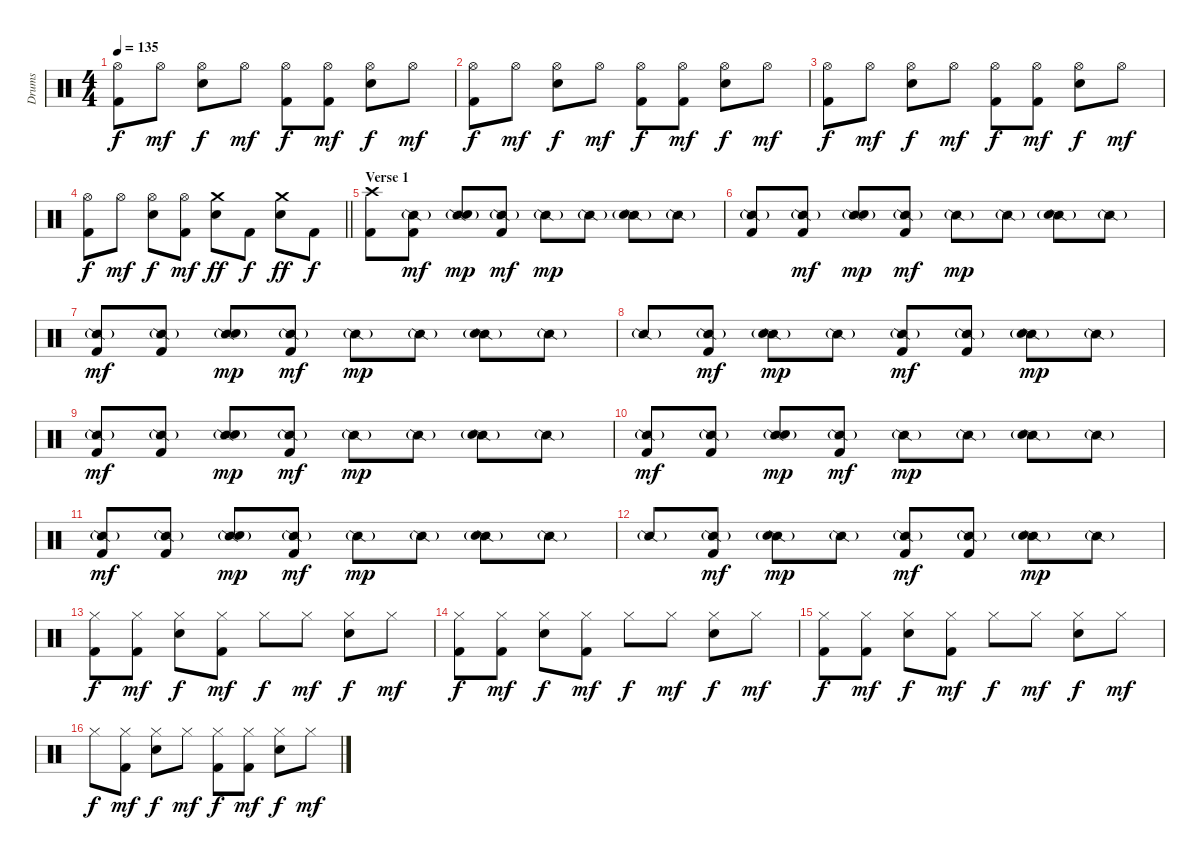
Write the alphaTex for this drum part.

\track ("Drums" "Drums") {instrument percussion}
\staff {score}
\articulation defaults
\ts (4 4)
\tempo 135
\clef neutral
\ks c
("Hi-Hat (open)" "Kick (hit) 2").8{dy f} "Hi-Hat (open)".8{dy mf} ("Hi-Hat (open)" "Electric Snare (hit)").8{dy f} "Hi-Hat (open)".8{dy mf} ("Hi-Hat (open)" "Kick (hit) 2").8{dy f} ("Hi-Hat (open)" "Kick (hit) 2").8{dy mf} ("Hi-Hat (open)" "Electric Snare (hit)").8{dy f} "Hi-Hat (open)".8{dy mf} |
("Hi-Hat (open)" "Kick (hit) 2").8{dy f} "Hi-Hat (open)".8{dy mf} ("Hi-Hat (open)" "Electric Snare (hit)").8{dy f} "Hi-Hat (open)".8{dy mf} ("Hi-Hat (open)" "Kick (hit) 2").8{dy f} ("Hi-Hat (open)" "Kick (hit) 2").8{dy mf} ("Hi-Hat (open)" "Electric Snare (hit)").8{dy f} "Hi-Hat (open)".8{dy mf} |
("Hi-Hat (open)" "Kick (hit) 2").8{dy f} "Hi-Hat (open)".8{dy mf} ("Hi-Hat (open)" "Electric Snare (hit)").8{dy f} "Hi-Hat (open)".8{dy mf} ("Hi-Hat (open)" "Kick (hit) 2").8{dy f} ("Hi-Hat (open)" "Kick (hit) 2").8{dy mf} ("Hi-Hat (open)" "Electric Snare (hit)").8{dy f} "Hi-Hat (open)".8{dy mf} |
\barLineRight lightlight
("Hi-Hat (open)" "Kick (hit) 2").8{dy f} "Hi-Hat (open)".8{dy mf} ("Hi-Hat (open)" "Electric Snare (hit)").8{dy f} ("Hi-Hat (open)" "Kick (hit) 2").8{dy mf} ("Crash medium (hit)" "Electric Snare (hit)").8{dy ff} "Kick (hit) 2".8{dy f} ("Crash medium (hit)" "Electric Snare (hit)").8{dy ff} "Kick (hit) 2".8{dy f} |
\section ("" "Verse 1")
("Crash high (hit)" "Kick (hit) 2").8 ("Snare (side stick) 2"{g} "Kick (hit) 2").8{dy mf} ("Snare (side stick) 2"{g} "Snare (hit) 2").8{dy mp} ("Snare (side stick) 2"{g} "Kick (hit) 2").8{dy mf} "Snare (side stick) 2"{g}.8{dy mp} "Snare (side stick) 2"{g}.8 ("Snare (side stick) 2"{g} "Snare (hit) 2").8 "Snare (side stick) 2"{g}.8 |
("Snare (side stick) 2"{g} "Kick (hit) 2").8 ("Snare (side stick) 2"{g} "Kick (hit) 2").8{dy mf} ("Snare (side stick) 2"{g} "Snare (hit) 2").8{dy mp} ("Snare (side stick) 2"{g} "Kick (hit) 2").8{dy mf} "Snare (side stick) 2"{g}.8{dy mp} "Snare (side stick) 2"{g}.8 ("Snare (side stick) 2"{g} "Snare (hit) 2").8 "Snare (side stick) 2"{g}.8 |
("Snare (side stick) 2"{g} "Kick (hit) 2").8{dy mf} ("Snare (side stick) 2"{g} "Kick (hit) 2").8 ("Snare (side stick) 2"{g} "Snare (hit) 2").8{dy mp} ("Snare (side stick) 2"{g} "Kick (hit) 2").8{dy mf} "Snare (side stick) 2"{g}.8{dy mp} "Snare (side stick) 2"{g}.8 ("Snare (side stick) 2"{g} "Snare (hit) 2").8 "Snare (side stick) 2"{g}.8 |
"Snare (side stick) 2"{g}.8 ("Snare (side stick) 2"{g} "Kick (hit) 2").8{dy mf} ("Snare (side stick) 2"{g} "Snare (hit) 2").8{dy mp} "Snare (side stick) 2"{g}.8 ("Snare (side stick) 2"{g} "Kick (hit) 2").8{dy mf} ("Snare (side stick) 2"{g} "Kick (hit) 2").8 ("Snare (side stick) 2"{g} "Snare (hit) 2").8{dy mp} "Snare (side stick) 2"{g}.8 |
("Snare (side stick) 2"{g} "Kick (hit) 2").8{dy mf} ("Snare (side stick) 2"{g} "Kick (hit) 2").8 ("Snare (side stick) 2"{g} "Snare (hit) 2").8{dy mp} ("Snare (side stick) 2"{g} "Kick (hit) 2").8{dy mf} "Snare (side stick) 2"{g}.8{dy mp} "Snare (side stick) 2"{g}.8 ("Snare (side stick) 2"{g} "Snare (hit) 2").8 "Snare (side stick) 2"{g}.8 |
("Snare (side stick) 2"{g} "Kick (hit) 2").8{dy mf} ("Snare (side stick) 2"{g} "Kick (hit) 2").8 ("Snare (side stick) 2"{g} "Snare (hit) 2").8{dy mp} ("Snare (side stick) 2"{g} "Kick (hit) 2").8{dy mf} "Snare (side stick) 2"{g}.8{dy mp} "Snare (side stick) 2"{g}.8 ("Snare (side stick) 2"{g} "Snare (hit) 2").8 "Snare (side stick) 2"{g}.8 |
("Snare (side stick) 2"{g} "Kick (hit) 2").8{dy mf} ("Snare (side stick) 2"{g} "Kick (hit) 2").8 ("Snare (side stick) 2"{g} "Snare (hit) 2").8{dy mp} ("Snare (side stick) 2"{g} "Kick (hit) 2").8{dy mf} "Snare (side stick) 2"{g}.8{dy mp} "Snare (side stick) 2"{g}.8 ("Snare (side stick) 2"{g} "Snare (hit) 2").8 "Snare (side stick) 2"{g}.8 |
"Snare (side stick) 2"{g}.8 ("Snare (side stick) 2"{g} "Kick (hit) 2").8{dy mf} ("Snare (side stick) 2"{g} "Snare (hit) 2").8{dy mp} "Snare (side stick) 2"{g}.8 ("Snare (side stick) 2"{g} "Kick (hit) 2").8{dy mf} ("Snare (side stick) 2"{g} "Kick (hit) 2").8 ("Snare (side stick) 2"{g} "Snare (hit) 2").8{dy mp} "Snare (side stick) 2"{g}.8 |
("Hi-Hat (closed)" "Kick (hit) 2").8{dy f} ("Hi-Hat (closed)" "Kick (hit) 2").8{dy mf} ("Hi-Hat (closed)" "Electric Snare (hit)").8{dy f} ("Hi-Hat (closed)" "Kick (hit) 2").8{dy mf} "Hi-Hat (closed)".8{dy f} "Hi-Hat (closed)".8{dy mf} ("Hi-Hat (closed)" "Electric Snare (hit)").8{dy f} "Hi-Hat (closed)".8{dy mf} |
("Hi-Hat (closed)" "Kick (hit) 2").8{dy f} ("Hi-Hat (closed)" "Kick (hit) 2").8{dy mf} ("Hi-Hat (closed)" "Electric Snare (hit)").8{dy f} ("Hi-Hat (closed)" "Kick (hit) 2").8{dy mf} "Hi-Hat (closed)".8{dy f} "Hi-Hat (closed)".8{dy mf} ("Hi-Hat (closed)" "Electric Snare (hit)").8{dy f} "Hi-Hat (closed)".8{dy mf} |
("Hi-Hat (closed)" "Kick (hit) 2").8{dy f} ("Hi-Hat (closed)" "Kick (hit) 2").8{dy mf} ("Hi-Hat (closed)" "Electric Snare (hit)").8{dy f} ("Hi-Hat (closed)" "Kick (hit) 2").8{dy mf} "Hi-Hat (closed)".8{dy f} "Hi-Hat (closed)".8{dy mf} ("Hi-Hat (closed)" "Electric Snare (hit)").8{dy f} "Hi-Hat (closed)".8{dy mf} |
"Hi-Hat (closed)".8{dy f} ("Hi-Hat (closed)" "Kick (hit) 2").8{dy mf} ("Hi-Hat (closed)" "Electric Snare (hit)").8{dy f} "Hi-Hat (closed)".8{dy mf} ("Hi-Hat (closed)" "Kick (hit) 2").8{dy f} ("Hi-Hat (closed)" "Kick (hit) 2").8{dy mf} ("Hi-Hat (closed)" "Electric Snare (hit)").8{dy f} "Hi-Hat (closed)".8{dy mf}
